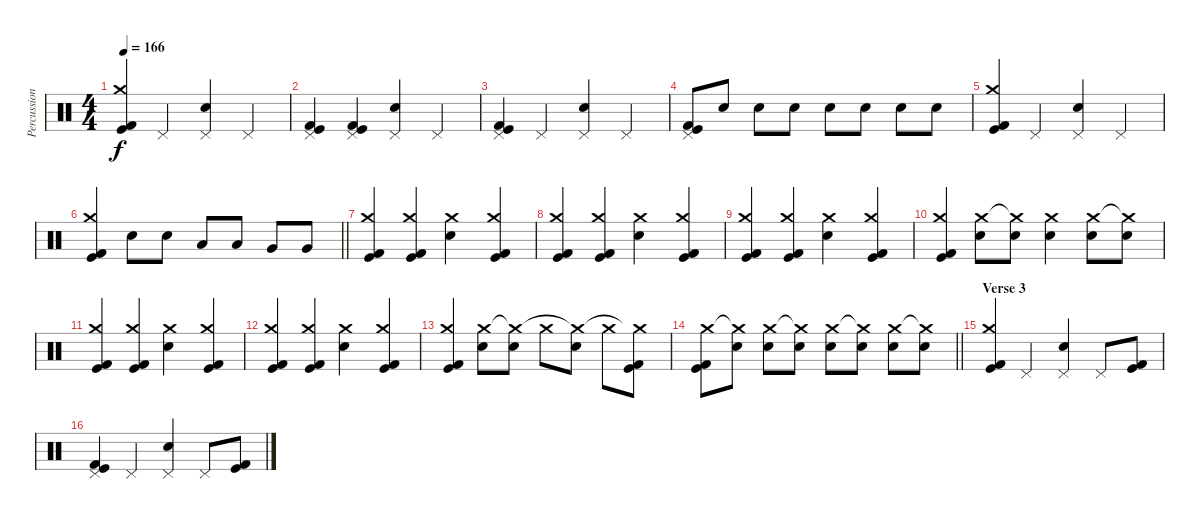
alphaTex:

\track ("Percussion" "Percussion") {instrument percussion}
\staff {score}
\articulation defaults
\ts (4 4)
\tempo 166
\clef neutral
\ks c
("Kick (hit) 2" "Crash medium (hit)" "Kick (hit)").4{dy f} "Pedal Hi-Hat (hit)".4 ("Electric Snare (hit)" "Pedal Hi-Hat (hit)").4 "Pedal Hi-Hat (hit)".4 |
("Kick (hit) 2" "Pedal Hi-Hat (hit)" "Kick (hit)").4 ("Kick (hit) 2" "Pedal Hi-Hat (hit)" "Kick (hit)").4 ("Electric Snare (hit)" "Pedal Hi-Hat (hit)").4 "Pedal Hi-Hat (hit)".4 |
("Kick (hit) 2" "Pedal Hi-Hat (hit)" "Kick (hit)").4 "Pedal Hi-Hat (hit)".4 ("Electric Snare (hit)" "Pedal Hi-Hat (hit)").4 "Pedal Hi-Hat (hit)".4 |
("Kick (hit) 2" "Pedal Hi-Hat (hit)" "Kick (hit)").8 "Electric Snare (hit)".8 "Electric Snare (hit)".8 "Electric Snare (hit)".8 "Electric Snare (hit)".8 "Electric Snare (hit)".8 "Electric Snare (hit)".8 "Electric Snare (hit)".8 |
("Kick (hit) 2" "Crash medium (hit)" "Kick (hit)").4 "Pedal Hi-Hat (hit)".4 ("Electric Snare (hit)" "Pedal Hi-Hat (hit)").4 "Pedal Hi-Hat (hit)".4 |
\barLineRight lightlight
("Kick (hit) 2" "Crash medium (hit)" "Kick (hit)").4 "Electric Snare (hit)".8 "Electric Snare (hit)".8 "Low Tom (hit)".8 "Low Tom (hit)".8 "Very Low Tom (hit)".8 "Very Low Tom (hit)".8 |
\section ("" "")
("Kick (hit) 2" "Crash medium (hit)" "Kick (hit)").4 ("Kick (hit) 2" "Crash medium (hit)" "Kick (hit)").4 ("Electric Snare (hit)" "Crash medium (hit)").4 ("Kick (hit) 2" "Crash medium (hit)" "Kick (hit)").4 |
("Kick (hit) 2" "Crash medium (hit)" "Kick (hit)").4 ("Kick (hit) 2" "Crash medium (hit)" "Kick (hit)").4 ("Electric Snare (hit)" "Crash medium (hit)").4 ("Kick (hit) 2" "Crash medium (hit)" "Kick (hit)").4 |
("Kick (hit) 2" "Crash medium (hit)" "Kick (hit)").4 ("Kick (hit) 2" "Crash medium (hit)" "Kick (hit)").4 ("Electric Snare (hit)" "Crash medium (hit)").4 ("Kick (hit) 2" "Crash medium (hit)" "Kick (hit)").4 |
("Kick (hit) 2" "Crash medium (hit)" "Kick (hit)").4 ("Electric Snare (hit)" "Crash medium (hit)").8 ("Electric Snare (hit)" "Crash medium (hit)"{t}).8 ("Electric Snare (hit)" "Crash medium (hit)").4 ("Electric Snare (hit)" "Crash medium (hit)").8 ("Electric Snare (hit)" "Crash medium (hit)"{t}).8 |
("Kick (hit) 2" "Crash medium (hit)" "Kick (hit)").4 ("Kick (hit) 2" "Crash medium (hit)" "Kick (hit)").4 ("Electric Snare (hit)" "Crash medium (hit)").4 ("Kick (hit) 2" "Crash medium (hit)" "Kick (hit)").4 |
("Kick (hit) 2" "Crash medium (hit)" "Kick (hit)").4 ("Kick (hit) 2" "Crash medium (hit)" "Kick (hit)").4 ("Electric Snare (hit)" "Crash medium (hit)").4 ("Kick (hit) 2" "Crash medium (hit)" "Kick (hit)").4 |
("Kick (hit) 2" "Crash medium (hit)" "Kick (hit)").4 ("Electric Snare (hit)" "Crash medium (hit)").8 ("Electric Snare (hit)" "Crash medium (hit)"{t}).8 "Crash medium (hit)".8 ("Electric Snare (hit)" "Crash medium (hit)"{t}).8 "Crash medium (hit)".8 ("Kick (hit) 2" "Crash medium (hit)"{t} "Kick (hit)").8 |
\barLineRight lightlight
("Kick (hit) 2" "Crash medium (hit)" "Kick (hit)").8 ("Electric Snare (hit)" "Crash medium (hit)"{t}).8 ("Electric Snare (hit)" "Crash medium (hit)").8 ("Electric Snare (hit)" "Crash medium (hit)"{t}).8 ("Electric Snare (hit)" "Crash medium (hit)").8 ("Electric Snare (hit)" "Crash medium (hit)"{t}).8 ("Electric Snare (hit)" "Crash medium (hit)").8 ("Electric Snare (hit)" "Crash medium (hit)"{t}).8 |
\section ("" "Verse 3")
("Kick (hit) 2" "Crash medium (hit)" "Kick (hit)").4 "Pedal Hi-Hat (hit)".4 ("Electric Snare (hit)" "Pedal Hi-Hat (hit)").4 "Pedal Hi-Hat (hit)".8 ("Kick (hit) 2" "Kick (hit)").8 |
("Kick (hit) 2" "Pedal Hi-Hat (hit)" "Kick (hit)").4 "Pedal Hi-Hat (hit)".4 ("Electric Snare (hit)" "Pedal Hi-Hat (hit)").4 "Pedal Hi-Hat (hit)".8 ("Kick (hit) 2" "Kick (hit)").8
